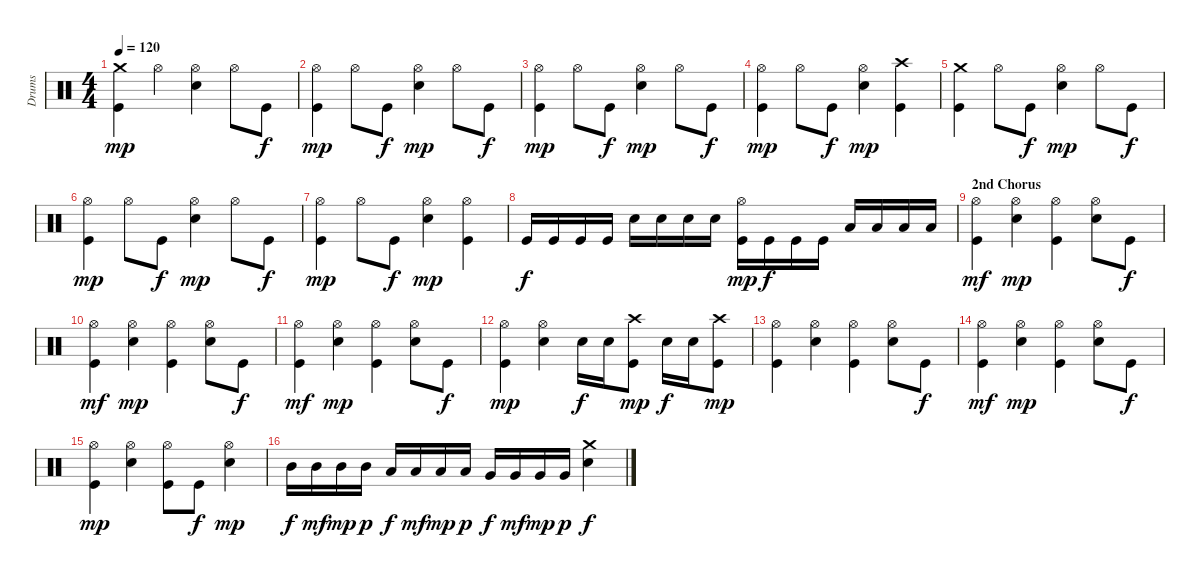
\track ("Drums" "Drums") {instrument percussion}
\staff {score}
\articulation defaults
\ts (4 4)
\tempo 120
\clef neutral
\ks c
("Crash medium (hit)" "Kick (hit)").4{dy mp} "Hi-Hat (open)".4 ("Hi-Hat (open)" "Electric Snare (hit)").4 "Hi-Hat (open)".8 "Kick (hit)".8{dy f} |
("Hi-Hat (open)" "Kick (hit)").4{dy mp} "Hi-Hat (open)".8 "Kick (hit)".8{dy f} ("Hi-Hat (open)" "Electric Snare (hit)").4{dy mp} "Hi-Hat (open)".8 "Kick (hit)".8{dy f} |
("Hi-Hat (open)" "Kick (hit)").4{dy mp} "Hi-Hat (open)".8 "Kick (hit)".8{dy f} ("Hi-Hat (open)" "Electric Snare (hit)").4{dy mp} "Hi-Hat (open)".8 "Kick (hit)".8{dy f} |
("Hi-Hat (open)" "Kick (hit)").4{dy mp} "Hi-Hat (open)".8 "Kick (hit)".8{dy f} ("Hi-Hat (open)" "Electric Snare (hit)").4{dy mp} ("Crash high (hit)" "Kick (hit)").4 |
("Crash medium (hit)" "Kick (hit)").4 "Hi-Hat (open)".8 "Kick (hit)".8{dy f} ("Hi-Hat (open)" "Electric Snare (hit)").4{dy mp} "Hi-Hat (open)".8 "Kick (hit)".8{dy f} |
("Hi-Hat (open)" "Kick (hit)").4{dy mp} "Hi-Hat (open)".8 "Kick (hit)".8{dy f} ("Hi-Hat (open)" "Electric Snare (hit)").4{dy mp} "Hi-Hat (open)".8 "Kick (hit)".8{dy f} |
("Hi-Hat (open)" "Kick (hit)").4{dy mp} "Hi-Hat (open)".8 "Kick (hit)".8{dy f} ("Hi-Hat (open)" "Electric Snare (hit)").4{dy mp} ("Hi-Hat (open)" "Kick (hit)").4 |
"Kick (hit)".16{dy f} "Kick (hit)".16 "Kick (hit)".16 "Kick (hit)".16 "Electric Snare (hit)".16 "Electric Snare (hit)".16 "Electric Snare (hit)".16 "Electric Snare (hit)".16 ("Hi-Hat (open)" "Kick (hit)").16{dy mp} "Kick (hit)".16{dy f} "Kick (hit)".16 "Kick (hit)".16 "Low Floor Tom (hit)".16 "Low Floor Tom (hit)".16 "Low Floor Tom (hit)".16 "Low Floor Tom (hit)".16 |
\section ("" "2nd Chorus")
("Hi-Hat (open)" "Kick (hit)").4{dy mf} ("Hi-Hat (open)" "Electric Snare (hit)").4{dy mp} ("Hi-Hat (open)" "Kick (hit)").4 ("Hi-Hat (open)" "Electric Snare (hit)").8 "Kick (hit)".8{dy f} |
("Hi-Hat (open)" "Kick (hit)").4{dy mf} ("Hi-Hat (open)" "Electric Snare (hit)").4{dy mp} ("Hi-Hat (open)" "Kick (hit)").4 ("Hi-Hat (open)" "Electric Snare (hit)").8 "Kick (hit)".8{dy f} |
("Hi-Hat (open)" "Kick (hit)").4{dy mf} ("Hi-Hat (open)" "Electric Snare (hit)").4{dy mp} ("Hi-Hat (open)" "Kick (hit)").4 ("Hi-Hat (open)" "Electric Snare (hit)").8 "Kick (hit)".8{dy f} |
("Hi-Hat (open)" "Kick (hit)").4{dy mp} ("Hi-Hat (open)" "Electric Snare (hit)").4 "Electric Snare (hit)".16{dy f} "Electric Snare (hit)".16 ("Crash high (hit)" "Kick (hit)").8{dy mp} "Electric Snare (hit)".16{dy f} "Electric Snare (hit)".16 ("Crash high (hit)" "Kick (hit)").8{dy mp} |
("Hi-Hat (open)" "Kick (hit)").4 ("Hi-Hat (open)" "Electric Snare (hit)").4 ("Hi-Hat (open)" "Kick (hit)").4 ("Hi-Hat (open)" "Electric Snare (hit)").8 "Kick (hit)".8{dy f} |
("Hi-Hat (open)" "Kick (hit)").4{dy mf} ("Hi-Hat (open)" "Electric Snare (hit)").4{dy mp} ("Hi-Hat (open)" "Kick (hit)").4 ("Hi-Hat (open)" "Electric Snare (hit)").8 "Kick (hit)".8{dy f} |
("Hi-Hat (open)" "Kick (hit)").4{dy mp} ("Hi-Hat (open)" "Electric Snare (hit)").4 ("Hi-Hat (open)" "Kick (hit)").8 "Kick (hit)".8{dy f} ("Hi-Hat (open)" "Electric Snare (hit)").4{dy mp} |
"Mid Tom (hit)".16{dy f} "Mid Tom (hit)".16{dy mf} "Mid Tom (hit)".16{dy mp} "Mid Tom (hit)".16{dy p} "Low Tom (hit)".16{dy f} "Low Tom (hit)".16{dy mf} "Low Tom (hit)".16{dy mp} "Low Tom (hit)".16{dy p} "Very Low Tom (hit)".16{dy f} "Very Low Tom (hit)".16{dy mf} "Very Low Tom (hit)".16{dy mp} "Very Low Tom (hit)".16{dy p} ("Crash medium (hit)" "Electric Snare (hit)").4{dy f}
